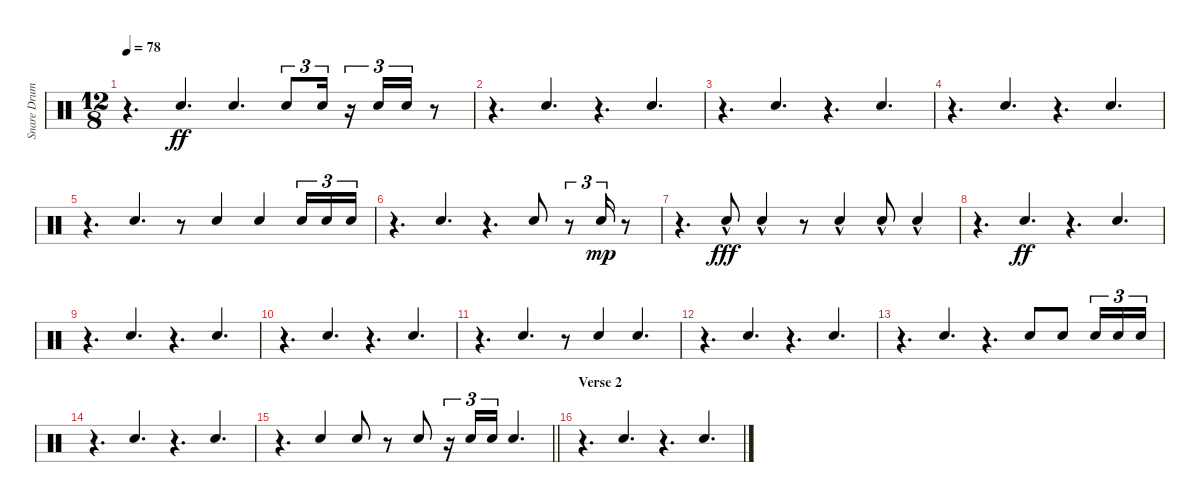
\track ("Snare Drum" "Snare Drum") {instrument percussion}
\staff {score}
\articulation defaults
\ts (12 8)
\tempo 78
\clef neutral
\ks c
r.4{d dy ff} "Electric Snare (hit)".4{d beam Up} "Electric Snare (hit)".4{d beam Up} "Electric Snare (hit)".8{tu (3 2) beam Up} "Electric Snare (hit)".16{tu (3 2) beam Up} r.16{tu (3 2) beam Up} "Electric Snare (hit)".16{tu (3 2) beam Up} "Electric Snare (hit)".16{tu (3 2) beam Up} r.8 |
r.4{d} "Electric Snare (hit)".4{d beam Up} r.4{d} "Electric Snare (hit)".4{d beam Up} |
r.4{d} "Electric Snare (hit)".4{d beam Up} r.4{d} "Electric Snare (hit)".4{d beam Up} |
r.4{d} "Electric Snare (hit)".4{d beam Up} r.4{d} "Electric Snare (hit)".4{d beam Up} |
r.4{d} "Electric Snare (hit)".4{d beam Up} r.8 "Electric Snare (hit)".4{beam Up} "Electric Snare (hit)".4{beam Up} "Electric Snare (hit)".16{tu (3 2) beam Up} "Electric Snare (hit)".16{tu (3 2) beam Up} "Electric Snare (hit)".16{tu (3 2) beam Up} |
r.4{d} "Electric Snare (hit)".4{d beam Up} r.4{d} "Electric Snare (hit)".8{beam Up} r.8{tu (3 2) beam Up} "Electric Snare (hit)".16{tu (3 2) dy mp beam Up} r.8 |
r.4{d} "Electric Snare (hit)"{hac}.8{dy fff beam Up} "Electric Snare (hit)"{hac}.4{beam Up} r.8 "Electric Snare (hit)"{hac}.4{beam Up} "Electric Snare (hit)"{hac}.8{beam Up} "Electric Snare (hit)"{hac}.4{beam Up} |
r.4{d} "Electric Snare (hit)".4{d dy ff beam Up} r.4{d} "Electric Snare (hit)".4{d beam Up} |
r.4{d} "Electric Snare (hit)".4{d beam Up} r.4{d} "Electric Snare (hit)".4{d beam Up} |
r.4{d} "Electric Snare (hit)".4{d beam Up} r.4{d} "Electric Snare (hit)".4{d beam Up} |
r.4{d} "Electric Snare (hit)".4{d beam Up} r.8 "Electric Snare (hit)".4{beam Up} "Electric Snare (hit)".4{d beam Up} |
r.4{d} "Electric Snare (hit)".4{d beam Up} r.4{d} "Electric Snare (hit)".4{d beam Up} |
r.4{d} "Electric Snare (hit)".4{d beam Up} r.4{d} "Electric Snare (hit)".8{beam Up} "Electric Snare (hit)".8{beam Up} "Electric Snare (hit)".16{tu (3 2) beam Up} "Electric Snare (hit)".16{tu (3 2) beam Up} "Electric Snare (hit)".16{tu (3 2) beam Up} |
r.4{d} "Electric Snare (hit)".4{d beam Up} r.4{d} "Electric Snare (hit)".4{d beam Up} |
\barLineRight lightlight
r.4{d} "Electric Snare (hit)".4{beam Up} "Electric Snare (hit)".8{beam Up} r.8 "Electric Snare (hit)".8{beam Up} r.16{tu (3 2) beam Up} "Electric Snare (hit)".16{tu (3 2) beam Up} "Electric Snare (hit)".16{tu (3 2) beam Up} "Electric Snare (hit)".4{d beam Up} |
\section ("" "Verse 2")
r.4{d} "Electric Snare (hit)".4{d beam Up} r.4{d} "Electric Snare (hit)".4{d beam Up}
